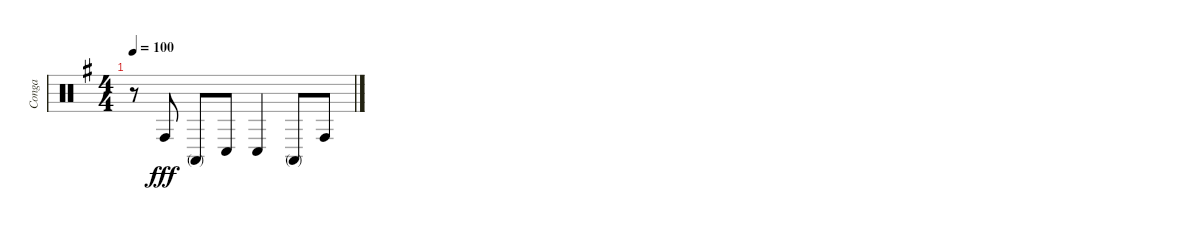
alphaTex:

\track ("Conga" "Conga") {instrument percussion}
\staff {score}
\articulation defaults
\ts (4 4)
\tempo 100
\clef neutral
\ks g
r.8{dy fff} "Conga high (hit)".8 "Conga high (mute)".8 "Conga low (hit)".8 "Conga low (hit)".4 "Conga high (mute)".8 "Conga high (hit)".8
